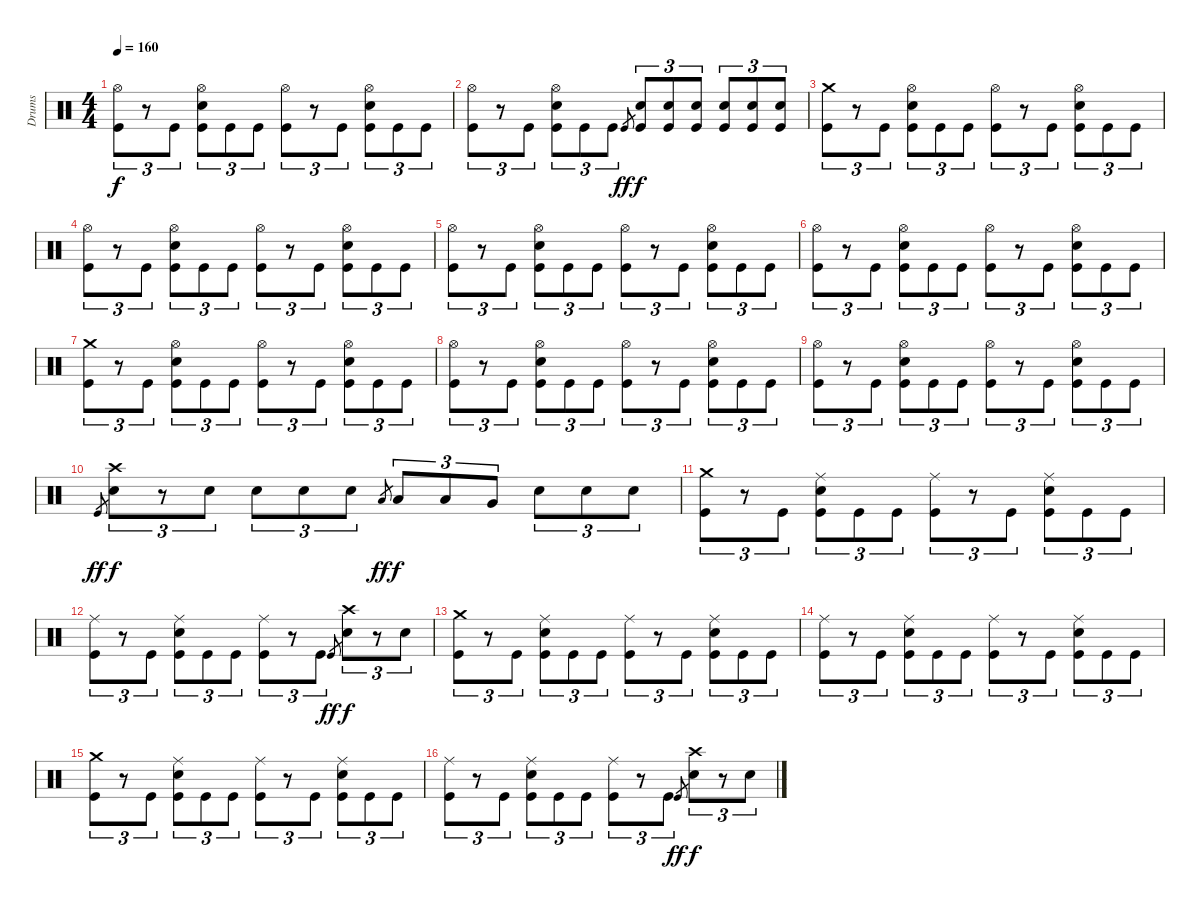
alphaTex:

\track ("Drums" "Drums") {instrument percussion}
\staff {score}
\articulation defaults
\ts (4 4)
\tempo 160
\clef neutral
\ks c
("Hi-Hat (open)" "Kick (hit)").8{tu (3 2) dy f} r.8{tu (3 2)} "Kick (hit)".8{tu (3 2)} ("Hi-Hat (open)" "Snare (hit) 2" "Kick (hit)").8{tu (3 2)} "Kick (hit)".8{tu (3 2)} "Kick (hit)".8{tu (3 2)} ("Hi-Hat (open)" "Kick (hit)").8{tu (3 2)} r.8{tu (3 2)} "Kick (hit)".8{tu (3 2)} ("Hi-Hat (open)" "Snare (hit) 2" "Kick (hit)").8{tu (3 2)} "Kick (hit)".8{tu (3 2)} "Kick (hit)".8{tu (3 2)} |
("Hi-Hat (open)" "Kick (hit)").8{tu (3 2)} r.8{tu (3 2)} "Kick (hit)".8{tu (3 2)} ("Hi-Hat (open)" "Snare (hit) 2" "Kick (hit)").8{tu (3 2)} "Kick (hit)".8{tu (3 2)} "Kick (hit)".8{tu (3 2)} "Kick (hit)".8{gr dy ff} ("Snare (hit) 2" "Kick (hit)").8{tu (3 2) dy f} ("Snare (hit) 2" "Kick (hit)").8{tu (3 2)} ("Snare (hit) 2" "Kick (hit)").8{tu (3 2)} ("Snare (hit) 2" "Kick (hit)").8{tu (3 2)} ("Snare (hit) 2" "Kick (hit)").8{tu (3 2)} ("Snare (hit) 2" "Kick (hit)").8{tu (3 2)} |
("Crash medium (hit)" "Kick (hit)").8{tu (3 2)} r.8{tu (3 2)} "Kick (hit)".8{tu (3 2)} ("Hi-Hat (open)" "Snare (hit) 2" "Kick (hit)").8{tu (3 2)} "Kick (hit)".8{tu (3 2)} "Kick (hit)".8{tu (3 2)} ("Hi-Hat (open)" "Kick (hit)").8{tu (3 2)} r.8{tu (3 2)} "Kick (hit)".8{tu (3 2)} ("Hi-Hat (open)" "Snare (hit) 2" "Kick (hit)").8{tu (3 2)} "Kick (hit)".8{tu (3 2)} "Kick (hit)".8{tu (3 2)} |
("Hi-Hat (open)" "Kick (hit)").8{tu (3 2)} r.8{tu (3 2)} "Kick (hit)".8{tu (3 2)} ("Hi-Hat (open)" "Snare (hit) 2" "Kick (hit)").8{tu (3 2)} "Kick (hit)".8{tu (3 2)} "Kick (hit)".8{tu (3 2)} ("Hi-Hat (open)" "Kick (hit)").8{tu (3 2)} r.8{tu (3 2)} "Kick (hit)".8{tu (3 2)} ("Hi-Hat (open)" "Snare (hit) 2" "Kick (hit)").8{tu (3 2)} "Kick (hit)".8{tu (3 2)} "Kick (hit)".8{tu (3 2)} |
("Hi-Hat (open)" "Kick (hit)").8{tu (3 2)} r.8{tu (3 2)} "Kick (hit)".8{tu (3 2)} ("Hi-Hat (open)" "Snare (hit) 2" "Kick (hit)").8{tu (3 2)} "Kick (hit)".8{tu (3 2)} "Kick (hit)".8{tu (3 2)} ("Hi-Hat (open)" "Kick (hit)").8{tu (3 2)} r.8{tu (3 2)} "Kick (hit)".8{tu (3 2)} ("Hi-Hat (open)" "Snare (hit) 2" "Kick (hit)").8{tu (3 2)} "Kick (hit)".8{tu (3 2)} "Kick (hit)".8{tu (3 2)} |
("Hi-Hat (open)" "Kick (hit)").8{tu (3 2)} r.8{tu (3 2)} "Kick (hit)".8{tu (3 2)} ("Hi-Hat (open)" "Snare (hit) 2" "Kick (hit)").8{tu (3 2)} "Kick (hit)".8{tu (3 2)} "Kick (hit)".8{tu (3 2)} ("Hi-Hat (open)" "Kick (hit)").8{tu (3 2)} r.8{tu (3 2)} "Kick (hit)".8{tu (3 2)} ("Hi-Hat (open)" "Snare (hit) 2" "Kick (hit)").8{tu (3 2)} "Kick (hit)".8{tu (3 2)} "Kick (hit)".8{tu (3 2)} |
("Crash medium (hit)" "Kick (hit)").8{tu (3 2)} r.8{tu (3 2)} "Kick (hit)".8{tu (3 2)} ("Hi-Hat (open)" "Snare (hit) 2" "Kick (hit)").8{tu (3 2)} "Kick (hit)".8{tu (3 2)} "Kick (hit)".8{tu (3 2)} ("Hi-Hat (open)" "Kick (hit)").8{tu (3 2)} r.8{tu (3 2)} "Kick (hit)".8{tu (3 2)} ("Hi-Hat (open)" "Snare (hit) 2" "Kick (hit)").8{tu (3 2)} "Kick (hit)".8{tu (3 2)} "Kick (hit)".8{tu (3 2)} |
("Hi-Hat (open)" "Kick (hit)").8{tu (3 2)} r.8{tu (3 2)} "Kick (hit)".8{tu (3 2)} ("Hi-Hat (open)" "Snare (hit) 2" "Kick (hit)").8{tu (3 2)} "Kick (hit)".8{tu (3 2)} "Kick (hit)".8{tu (3 2)} ("Hi-Hat (open)" "Kick (hit)").8{tu (3 2)} r.8{tu (3 2)} "Kick (hit)".8{tu (3 2)} ("Hi-Hat (open)" "Snare (hit) 2" "Kick (hit)").8{tu (3 2)} "Kick (hit)".8{tu (3 2)} "Kick (hit)".8{tu (3 2)} |
("Hi-Hat (open)" "Kick (hit)").8{tu (3 2)} r.8{tu (3 2)} "Kick (hit)".8{tu (3 2)} ("Hi-Hat (open)" "Snare (hit) 2" "Kick (hit)").8{tu (3 2)} "Kick (hit)".8{tu (3 2)} "Kick (hit)".8{tu (3 2)} ("Hi-Hat (open)" "Kick (hit)").8{tu (3 2)} r.8{tu (3 2)} "Kick (hit)".8{tu (3 2)} ("Hi-Hat (open)" "Snare (hit) 2" "Kick (hit)").8{tu (3 2)} "Kick (hit)".8{tu (3 2)} "Kick (hit)".8{tu (3 2)} |
"Kick (hit)".8{gr dy ff} ("Crash high (hit)" "Snare (hit) 2").8{tu (3 2) dy f} r.8{tu (3 2)} "Snare (hit) 2".8{tu (3 2)} "Snare (hit) 2".8{tu (3 2)} "Snare (hit) 2".8{tu (3 2)} "Snare (hit) 2".8{tu (3 2)} "Low Tom (hit)".8{gr dy ff} "Low Tom (hit)".8{tu (3 2) dy f} "Low Tom (hit)".8{tu (3 2)} "Very Low Tom (hit)".8{tu (3 2)} "Snare (hit) 2".8{tu (3 2)} "Snare (hit) 2".8{tu (3 2)} "Snare (hit) 2".8{tu (3 2)} |
("Crash medium (hit)" "Kick (hit)").8{tu (3 2)} r.8{tu (3 2)} "Kick (hit)".8{tu (3 2)} ("Ride (middle)" "Snare (hit) 2" "Kick (hit)").8{tu (3 2)} "Kick (hit)".8{tu (3 2)} "Kick (hit)".8{tu (3 2)} ("Ride (middle)" "Kick (hit)").8{tu (3 2)} r.8{tu (3 2)} "Kick (hit)".8{tu (3 2)} ("Ride (middle)" "Snare (hit) 2" "Kick (hit)").8{tu (3 2)} "Kick (hit)".8{tu (3 2)} "Kick (hit)".8{tu (3 2)} |
("Ride (middle)" "Kick (hit)").8{tu (3 2)} r.8{tu (3 2)} "Kick (hit)".8{tu (3 2)} ("Ride (middle)" "Snare (hit) 2" "Kick (hit)").8{tu (3 2)} "Kick (hit)".8{tu (3 2)} "Kick (hit)".8{tu (3 2)} ("Ride (middle)" "Kick (hit)").8{tu (3 2)} r.8{tu (3 2)} "Kick (hit)".8{tu (3 2)} "Kick (hit)".8{gr dy ff} ("Crash high (hit)" "Snare (hit) 2").8{tu (3 2) dy f} r.8{tu (3 2)} "Snare (hit) 2".8{tu (3 2)} |
("Crash medium (hit)" "Kick (hit)").8{tu (3 2)} r.8{tu (3 2)} "Kick (hit)".8{tu (3 2)} ("Ride (middle)" "Snare (hit) 2" "Kick (hit)").8{tu (3 2)} "Kick (hit)".8{tu (3 2)} "Kick (hit)".8{tu (3 2)} ("Ride (middle)" "Kick (hit)").8{tu (3 2)} r.8{tu (3 2)} "Kick (hit)".8{tu (3 2)} ("Ride (middle)" "Snare (hit) 2" "Kick (hit)").8{tu (3 2)} "Kick (hit)".8{tu (3 2)} "Kick (hit)".8{tu (3 2)} |
("Ride (middle)" "Kick (hit)").8{tu (3 2)} r.8{tu (3 2)} "Kick (hit)".8{tu (3 2)} ("Ride (middle)" "Snare (hit) 2" "Kick (hit)").8{tu (3 2)} "Kick (hit)".8{tu (3 2)} "Kick (hit)".8{tu (3 2)} ("Ride (middle)" "Kick (hit)").8{tu (3 2)} r.8{tu (3 2)} "Kick (hit)".8{tu (3 2)} ("Ride (middle)" "Snare (hit) 2" "Kick (hit)").8{tu (3 2)} "Kick (hit)".8{tu (3 2)} "Kick (hit)".8{tu (3 2)} |
("Crash medium (hit)" "Kick (hit)").8{tu (3 2)} r.8{tu (3 2)} "Kick (hit)".8{tu (3 2)} ("Ride (middle)" "Snare (hit) 2" "Kick (hit)").8{tu (3 2)} "Kick (hit)".8{tu (3 2)} "Kick (hit)".8{tu (3 2)} ("Ride (middle)" "Kick (hit)").8{tu (3 2)} r.8{tu (3 2)} "Kick (hit)".8{tu (3 2)} ("Ride (middle)" "Snare (hit) 2" "Kick (hit)").8{tu (3 2)} "Kick (hit)".8{tu (3 2)} "Kick (hit)".8{tu (3 2)} |
("Ride (middle)" "Kick (hit)").8{tu (3 2)} r.8{tu (3 2)} "Kick (hit)".8{tu (3 2)} ("Ride (middle)" "Snare (hit) 2" "Kick (hit)").8{tu (3 2)} "Kick (hit)".8{tu (3 2)} "Kick (hit)".8{tu (3 2)} ("Ride (middle)" "Kick (hit)").8{tu (3 2)} r.8{tu (3 2)} "Kick (hit)".8{tu (3 2)} "Kick (hit)".8{gr dy ff} ("Crash high (hit)" "Snare (hit) 2").8{tu (3 2) dy f} r.8{tu (3 2)} "Snare (hit) 2".8{tu (3 2)}
